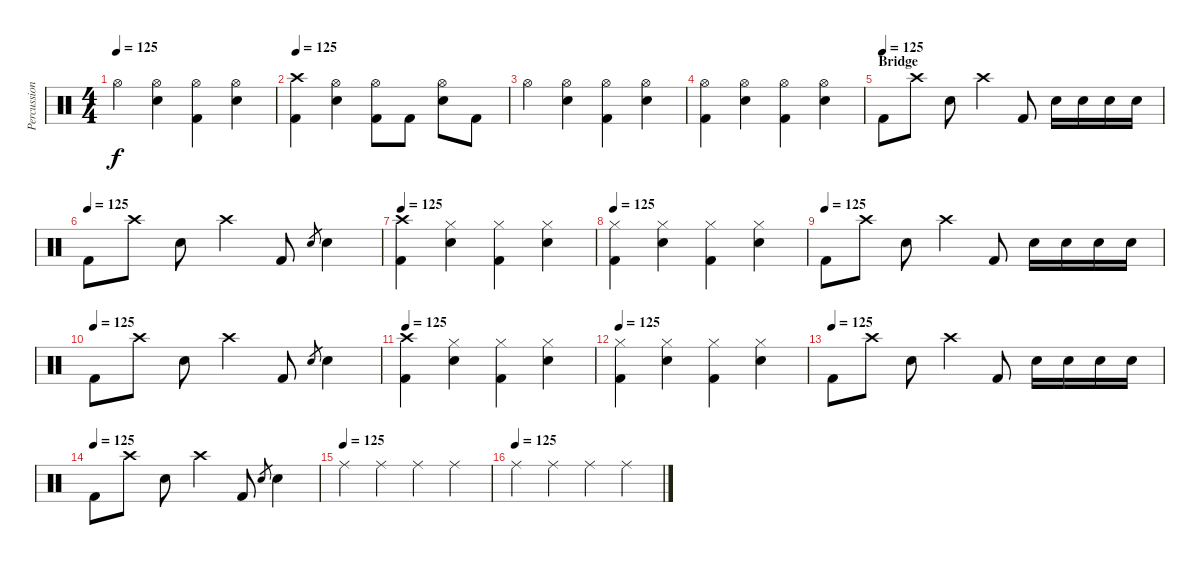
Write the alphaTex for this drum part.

\track ("Percussion" "Percussion") {instrument percussion}
\staff {score}
\articulation defaults
\ts (4 4)
\tempo 125
\clef neutral
\ks c "Hi-Hat (open)".4{dy f}
("Hi-Hat (open)" "Electric Snare (hit)").4 ("Hi-Hat (open)" "Kick (hit) 2").4 ("Hi-Hat (open)" "Electric Snare (hit)").4 |
\tempo 125
("Crash high (hit)" "Kick (hit) 2").4 ("Hi-Hat (open)" "Electric Snare (hit)").4 ("Hi-Hat (open)" "Kick (hit) 2").8 "Kick (hit) 2".8 ("Hi-Hat (open)" "Electric Snare (hit)").8 "Kick (hit) 2".8 |
"Hi-Hat (open)".4 ("Hi-Hat (open)" "Electric Snare (hit)").4 ("Hi-Hat (open)" "Kick (hit) 2").4 ("Hi-Hat (open)" "Electric Snare (hit)").4 |
("Hi-Hat (open)" "Kick (hit) 2").4 ("Hi-Hat (open)" "Electric Snare (hit)").4 ("Hi-Hat (open)" "Kick (hit) 2").4 ("Hi-Hat (open)" "Electric Snare (hit)").4 |
\section ("" "Bridge")
\tempo (125)
"Kick (hit) 2".8 "Crash high (hit)".8 "Electric Snare (hit)".8 "Crash high (hit)".4 "Kick (hit) 2".8 "Electric Snare (hit)".16 "Electric Snare (hit)".16 "Electric Snare (hit)".16 "Electric Snare (hit)".16 |
\tempo (125)
"Kick (hit) 2".8 "Crash high (hit)".8 "Electric Snare (hit)".8 "Crash high (hit)".4 "Kick (hit) 2".8 "Electric Snare (hit)".8{gr} "Electric Snare (hit)".4 |
\tempo 125
("Crash high (hit)" "Kick (hit) 2").4 ("Hi-Hat (closed)" "Electric Snare (hit)").4 ("Hi-Hat (closed)" "Kick (hit) 2").4 ("Hi-Hat (closed)" "Electric Snare (hit)").4 |
\tempo 125
("Hi-Hat (closed)" "Kick (hit) 2").4 ("Hi-Hat (closed)" "Electric Snare (hit)").4 ("Hi-Hat (closed)" "Kick (hit) 2").4 ("Hi-Hat (closed)" "Electric Snare (hit)").4 |
\tempo (125)
"Kick (hit) 2".8 "Crash high (hit)".8 "Electric Snare (hit)".8 "Crash high (hit)".4 "Kick (hit) 2".8 "Electric Snare (hit)".16 "Electric Snare (hit)".16 "Electric Snare (hit)".16 "Electric Snare (hit)".16 |
\tempo (125)
"Kick (hit) 2".8 "Crash high (hit)".8 "Electric Snare (hit)".8 "Crash high (hit)".4 "Kick (hit) 2".8 "Electric Snare (hit)".8{gr} "Electric Snare (hit)".4 |
\tempo 125
("Crash high (hit)" "Kick (hit) 2").4 ("Hi-Hat (closed)" "Electric Snare (hit)").4 ("Hi-Hat (closed)" "Kick (hit) 2").4 ("Hi-Hat (closed)" "Electric Snare (hit)").4 |
\tempo 125
("Hi-Hat (closed)" "Kick (hit) 2").4 ("Hi-Hat (closed)" "Electric Snare (hit)").4 ("Hi-Hat (closed)" "Kick (hit) 2").4 ("Hi-Hat (closed)" "Electric Snare (hit)").4 |
\tempo (125)
"Kick (hit) 2".8 "Crash high (hit)".8 "Electric Snare (hit)".8 "Crash high (hit)".4 "Kick (hit) 2".8 "Electric Snare (hit)".16 "Electric Snare (hit)".16 "Electric Snare (hit)".16 "Electric Snare (hit)".16 |
\tempo (125)
"Kick (hit) 2".8 "Crash high (hit)".8 "Electric Snare (hit)".8 "Crash high (hit)".4 "Kick (hit) 2".8 "Electric Snare (hit)".8{gr} "Electric Snare (hit)".4 |
\tempo (125)
"Ride (middle)".4 "Ride (middle)".4 "Ride (middle)".4 "Ride (middle)".4 |
\tempo (125)
"Ride (middle)".4 "Ride (middle)".4 "Ride (middle)".4 "Ride (middle)".4
